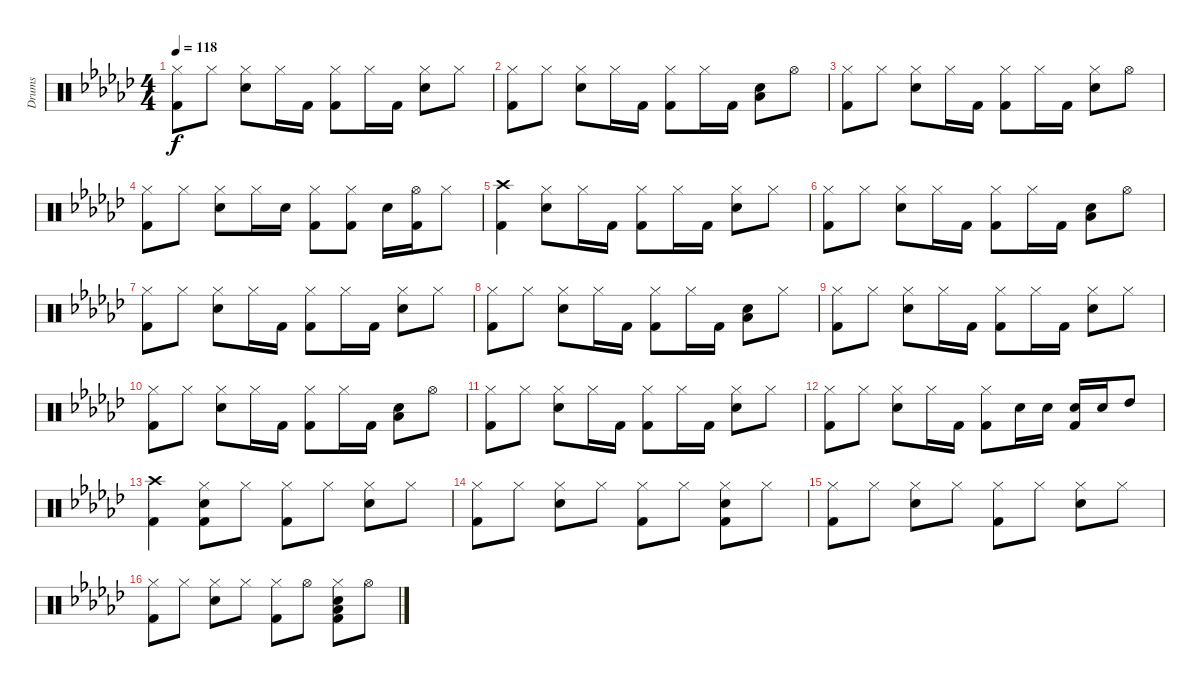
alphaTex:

\track ("Drums" "Drums") {instrument percussion}
\staff {score}
\articulation defaults
\ts (4 4)
\tempo 118
\clef neutral
\ks ebminor
("Hi-Hat (closed)" "Kick (hit) 2").8{dy f} "Hi-Hat (closed)".8 ("Hi-Hat (closed)" "Electric Snare (hit)").8 "Hi-Hat (closed)".16 "Kick (hit) 2".16 ("Hi-Hat (closed)" "Kick (hit) 2").8 "Hi-Hat (closed)".16 "Kick (hit) 2".16 ("Hi-Hat (closed)" "Electric Snare (hit)").8 "Hi-Hat (closed)".8 |
("Hi-Hat (closed)" "Kick (hit) 2").8 "Hi-Hat (closed)".8 ("Hi-Hat (closed)" "Electric Snare (hit)").8 "Hi-Hat (closed)".16 "Kick (hit) 2".16 ("Hi-Hat (closed)" "Kick (hit) 2").8 "Hi-Hat (closed)".16 "Kick (hit) 2".16 ("Electric Snare (hit)" "Low Tom (hit)").8 "Hi-Hat (open)".8 |
("Hi-Hat (closed)" "Kick (hit) 2").8 "Hi-Hat (closed)".8 ("Hi-Hat (closed)" "Electric Snare (hit)").8 "Hi-Hat (closed)".16 "Kick (hit) 2".16 ("Hi-Hat (closed)" "Kick (hit) 2").8 "Hi-Hat (closed)".16 "Kick (hit) 2".16 ("Hi-Hat (closed)" "Electric Snare (hit)").8 "Hi-Hat (open)".8 |
("Hi-Hat (closed)" "Kick (hit) 2").8 "Hi-Hat (closed)".8 ("Hi-Hat (closed)" "Electric Snare (hit)").8 "Hi-Hat (closed)".16 "Electric Snare (hit)".16 ("Hi-Hat (closed)" "Kick (hit) 2").8 ("Hi-Hat (closed)" "Kick (hit) 2").8 "Electric Snare (hit)".16 ("Hi-Hat (open)" "Kick (hit) 2").16 "Hi-Hat (closed)".8 |
("Crash high (hit)" "Kick (hit) 2").4 ("Hi-Hat (closed)" "Electric Snare (hit)").8 "Hi-Hat (closed)".16 "Kick (hit) 2".16 ("Hi-Hat (closed)" "Kick (hit) 2").8 "Hi-Hat (closed)".16 "Kick (hit) 2".16 ("Hi-Hat (closed)" "Electric Snare (hit)").8 "Hi-Hat (closed)".8 |
("Hi-Hat (closed)" "Kick (hit) 2").8 "Hi-Hat (closed)".8 ("Hi-Hat (closed)" "Electric Snare (hit)").8 "Hi-Hat (closed)".16 "Kick (hit) 2".16 ("Hi-Hat (closed)" "Kick (hit) 2").8 "Hi-Hat (closed)".16 "Kick (hit) 2".16 ("Electric Snare (hit)" "Low Tom (hit)").8 "Hi-Hat (open)".8 |
("Hi-Hat (closed)" "Kick (hit) 2").8 "Hi-Hat (closed)".8 ("Hi-Hat (closed)" "Electric Snare (hit)").8 "Hi-Hat (closed)".16 "Kick (hit) 2".16 ("Hi-Hat (closed)" "Kick (hit) 2").8 "Hi-Hat (closed)".16 "Kick (hit) 2".16 ("Hi-Hat (closed)" "Electric Snare (hit)").8 "Hi-Hat (closed)".8 |
("Hi-Hat (closed)" "Kick (hit) 2").8 "Hi-Hat (closed)".8 ("Hi-Hat (closed)" "Electric Snare (hit)").8 "Hi-Hat (closed)".16 "Kick (hit) 2".16 ("Hi-Hat (closed)" "Kick (hit) 2").8 "Hi-Hat (closed)".16 "Kick (hit) 2".16 ("Electric Snare (hit)" "Low Tom (hit)").8 "Hi-Hat (closed)".8 |
("Hi-Hat (closed)" "Kick (hit) 2").8 "Hi-Hat (closed)".8 ("Hi-Hat (closed)" "Electric Snare (hit)").8 "Hi-Hat (closed)".16 "Kick (hit) 2".16 ("Hi-Hat (closed)" "Kick (hit) 2").8 "Hi-Hat (closed)".16 "Kick (hit) 2".16 ("Hi-Hat (closed)" "Electric Snare (hit)").8 "Hi-Hat (closed)".8 |
("Hi-Hat (closed)" "Kick (hit) 2").8 "Hi-Hat (closed)".8 ("Hi-Hat (closed)" "Electric Snare (hit)").8 "Hi-Hat (closed)".16 "Kick (hit) 2".16 ("Hi-Hat (closed)" "Kick (hit) 2").8 "Hi-Hat (closed)".16 "Kick (hit) 2".16 ("Electric Snare (hit)" "Low Tom (hit)").8 "Hi-Hat (open)".8 |
("Hi-Hat (closed)" "Kick (hit) 2").8 "Hi-Hat (closed)".8 ("Hi-Hat (closed)" "Electric Snare (hit)").8 "Hi-Hat (closed)".16 "Kick (hit) 2".16 ("Hi-Hat (closed)" "Kick (hit) 2").8 "Hi-Hat (closed)".16 "Kick (hit) 2".16 ("Hi-Hat (closed)" "Electric Snare (hit)").8 "Hi-Hat (closed)".8 |
("Hi-Hat (closed)" "Kick (hit) 2").8 "Hi-Hat (closed)".8 ("Hi-Hat (closed)" "Electric Snare (hit)").8 "Hi-Hat (closed)".16 "Kick (hit) 2".16 ("Hi-Hat (closed)" "Kick (hit) 2").8 "Electric Snare (hit)".16 "Electric Snare (hit)".16 ("Electric Snare (hit)" "Kick (hit) 2").16 "Electric Snare (hit)".16 "High Tom (hit)".8 |
("Crash high (hit)" "Kick (hit) 2").4 ("Hi-Hat (closed)" "Electric Snare (hit)" "Kick (hit) 2").8 "Hi-Hat (closed)".8 ("Hi-Hat (closed)" "Kick (hit) 2").8 "Hi-Hat (closed)".8 ("Hi-Hat (closed)" "Electric Snare (hit)").8 "Hi-Hat (closed)".8 |
("Hi-Hat (closed)" "Kick (hit) 2").8 "Hi-Hat (closed)".8 ("Hi-Hat (closed)" "Electric Snare (hit)").8 "Hi-Hat (closed)".8 ("Hi-Hat (closed)" "Kick (hit) 2").8 "Hi-Hat (closed)".8 ("Hi-Hat (closed)" "Electric Snare (hit)" "Kick (hit) 2").8 "Hi-Hat (closed)".8 |
("Hi-Hat (closed)" "Kick (hit) 2").8 "Hi-Hat (closed)".8 ("Hi-Hat (closed)" "Electric Snare (hit)").8 "Hi-Hat (closed)".8 ("Hi-Hat (closed)" "Kick (hit) 2").8 "Hi-Hat (closed)".8 ("Hi-Hat (closed)" "Electric Snare (hit)").8 "Hi-Hat (closed)".8 |
("Hi-Hat (closed)" "Kick (hit) 2").8 "Hi-Hat (closed)".8 ("Hi-Hat (closed)" "Electric Snare (hit)").8 "Hi-Hat (closed)".8 ("Hi-Hat (closed)" "Kick (hit) 2").8 "Hi-Hat (open)".8 ("Hi-Hat (closed)" "Electric Snare (hit)" "Low Tom (hit)" "Kick (hit) 2").8 "Hi-Hat (open)".8
